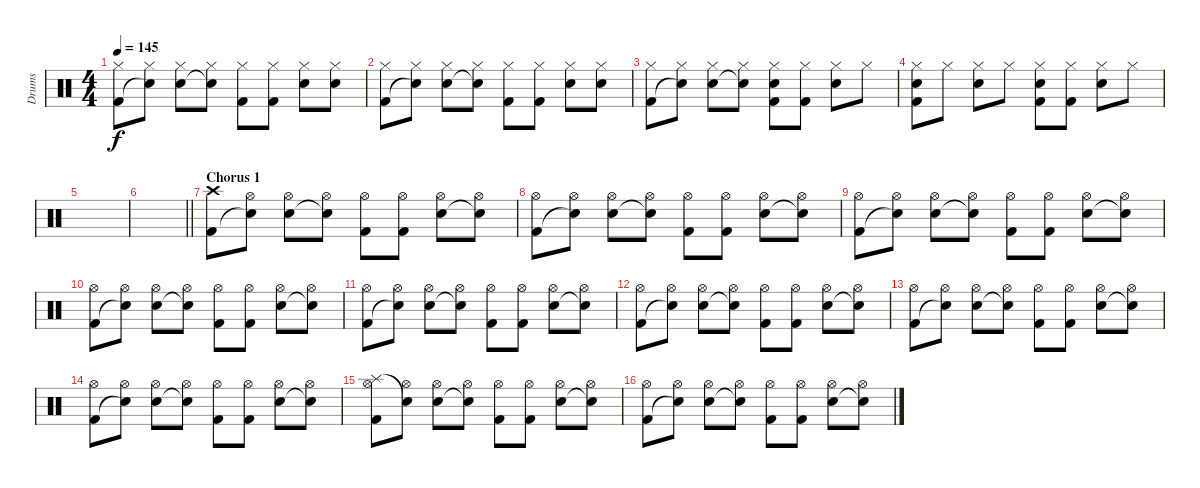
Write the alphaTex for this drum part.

\track ("Drums" "Drums") {instrument percussion}
\staff {score}
\articulation defaults
\ts (4 4)
\tempo 145
\clef neutral
\ks c
("Hi-Hat (closed)" "Kick (hit) 2").8{dy f} ("Hi-Hat (closed)" "Snare (hit)"{t}).8 ("Hi-Hat (closed)" "Electric Snare (hit)").8 ("Hi-Hat (closed)" "Snare (hit)"{t}).8 ("Hi-Hat (closed)" "Kick (hit) 2").8 ("Hi-Hat (closed)" "Kick (hit) 2").8 ("Hi-Hat (closed)" "Electric Snare (hit)").8 ("Hi-Hat (closed)" "Electric Snare (hit)").8 |
("Hi-Hat (closed)" "Kick (hit) 2").8 ("Hi-Hat (closed)" "Snare (hit)"{t}).8 ("Hi-Hat (closed)" "Electric Snare (hit)").8 ("Hi-Hat (closed)" "Snare (hit)"{t}).8 ("Hi-Hat (closed)" "Kick (hit) 2").8 ("Hi-Hat (closed)" "Kick (hit) 2").8 ("Hi-Hat (closed)" "Electric Snare (hit)").8 ("Hi-Hat (closed)" "Electric Snare (hit)").8 |
("Hi-Hat (closed)" "Kick (hit) 2").8 ("Hi-Hat (closed)" "Snare (hit)"{t}).8 ("Hi-Hat (closed)" "Electric Snare (hit)").8 ("Hi-Hat (closed)" "Snare (hit)"{t}).8 ("Hi-Hat (closed)" "Electric Snare (hit)" "Kick (hit) 2").8 ("Hi-Hat (closed)" "Kick (hit) 2").8 ("Hi-Hat (closed)" "Electric Snare (hit)").8 "Hi-Hat (closed)".8 |
("Hi-Hat (closed)" "Electric Snare (hit)" "Kick (hit) 2").8 "Hi-Hat (closed)".8 ("Hi-Hat (closed)" "Electric Snare (hit)").8 "Hi-Hat (closed)".8 ("Hi-Hat (closed)" "Electric Snare (hit)" "Kick (hit) 2").8 ("Hi-Hat (closed)" "Kick (hit) 2").8 ("Hi-Hat (closed)" "Electric Snare (hit)").8 "Hi-Hat (closed)".8 |
|
\barLineRight lightlight
|
\section ("" "Chorus 1")
("Crash high (hit)" "Kick (hit) 2").8 ("Hi-Hat (open)" "Snare (hit)"{t}).8 ("Hi-Hat (open)" "Electric Snare (hit)").8 ("Hi-Hat (open)" "Snare (hit)"{t}).8 ("Hi-Hat (open)" "Kick (hit) 2").8 ("Hi-Hat (open)" "Kick (hit) 2").8 ("Hi-Hat (open)" "Electric Snare (hit)").8 ("Hi-Hat (open)" "Snare (hit)"{t}).8 |
("Hi-Hat (open)" "Kick (hit) 2").8 ("Hi-Hat (open)" "Snare (hit)"{t}).8 ("Hi-Hat (open)" "Electric Snare (hit)").8 ("Hi-Hat (open)" "Snare (hit)"{t}).8 ("Hi-Hat (open)" "Kick (hit) 2").8 ("Hi-Hat (open)" "Kick (hit) 2").8 ("Hi-Hat (open)" "Electric Snare (hit)").8 ("Hi-Hat (open)" "Snare (hit)"{t}).8 |
("Hi-Hat (open)" "Kick (hit) 2").8 ("Hi-Hat (open)" "Snare (hit)"{t}).8 ("Hi-Hat (open)" "Electric Snare (hit)").8 ("Hi-Hat (open)" "Snare (hit)"{t}).8 ("Hi-Hat (open)" "Kick (hit) 2").8 ("Hi-Hat (open)" "Kick (hit) 2").8 ("Hi-Hat (open)" "Electric Snare (hit)").8 ("Hi-Hat (open)" "Snare (hit)"{t}).8 |
("Hi-Hat (open)" "Kick (hit) 2").8 ("Hi-Hat (open)" "Snare (hit)"{t}).8 ("Hi-Hat (open)" "Electric Snare (hit)").8 ("Hi-Hat (open)" "Snare (hit)"{t}).8 ("Hi-Hat (open)" "Kick (hit) 2").8 ("Hi-Hat (open)" "Kick (hit) 2").8 ("Hi-Hat (open)" "Electric Snare (hit)").8 ("Hi-Hat (open)" "Snare (hit)"{t}).8 |
("Hi-Hat (open)" "Kick (hit) 2").8 ("Hi-Hat (open)" "Snare (hit)"{t}).8 ("Hi-Hat (open)" "Electric Snare (hit)").8 ("Hi-Hat (open)" "Snare (hit)"{t}).8 ("Hi-Hat (open)" "Kick (hit) 2").8 ("Hi-Hat (open)" "Kick (hit) 2").8 ("Hi-Hat (open)" "Electric Snare (hit)").8 ("Hi-Hat (open)" "Snare (hit)"{t}).8 |
("Hi-Hat (open)" "Kick (hit) 2").8 ("Hi-Hat (open)" "Snare (hit)"{t}).8 ("Hi-Hat (open)" "Electric Snare (hit)").8 ("Hi-Hat (open)" "Snare (hit)"{t}).8 ("Hi-Hat (open)" "Kick (hit) 2").8 ("Hi-Hat (open)" "Kick (hit) 2").8 ("Hi-Hat (open)" "Electric Snare (hit)").8 ("Hi-Hat (open)" "Snare (hit)"{t}).8 |
("Hi-Hat (open)" "Kick (hit) 2").8 ("Hi-Hat (open)" "Snare (hit)"{t}).8 ("Hi-Hat (open)" "Electric Snare (hit)").8 ("Hi-Hat (open)" "Snare (hit)"{t}).8 ("Hi-Hat (open)" "Kick (hit) 2").8 ("Hi-Hat (open)" "Kick (hit) 2").8 ("Hi-Hat (open)" "Electric Snare (hit)").8 ("Hi-Hat (open)" "Snare (hit)"{t}).8 |
("Hi-Hat (open)" "Kick (hit) 2").8 ("Hi-Hat (open)" "Snare (hit)"{t}).8 ("Hi-Hat (open)" "Electric Snare (hit)").8 ("Hi-Hat (open)" "Snare (hit)"{t}).8 ("Hi-Hat (open)" "Kick (hit) 2").8 ("Hi-Hat (open)" "Kick (hit) 2").8 ("Hi-Hat (open)" "Electric Snare (hit)").8 ("Hi-Hat (open)" "Snare (hit)"{t}).8 |
("Hi-Hat (open)" "Splash (hit)" "Kick (hit) 2").8 ("Hi-Hat (open)" "Snare (hit)"{t}).8 ("Hi-Hat (open)" "Electric Snare (hit)").8 ("Hi-Hat (open)" "Snare (hit)"{t}).8 ("Hi-Hat (open)" "Kick (hit) 2").8 ("Hi-Hat (open)" "Kick (hit) 2").8 ("Hi-Hat (open)" "Electric Snare (hit)").8 ("Hi-Hat (open)" "Snare (hit)"{t}).8 |
("Hi-Hat (open)" "Kick (hit) 2").8 ("Hi-Hat (open)" "Snare (hit)"{t}).8 ("Hi-Hat (open)" "Electric Snare (hit)").8 ("Hi-Hat (open)" "Snare (hit)"{t}).8 ("Hi-Hat (open)" "Kick (hit) 2").8 ("Hi-Hat (open)" "Kick (hit) 2").8 ("Hi-Hat (open)" "Electric Snare (hit)").8 ("Hi-Hat (open)" "Snare (hit)"{t}).8
